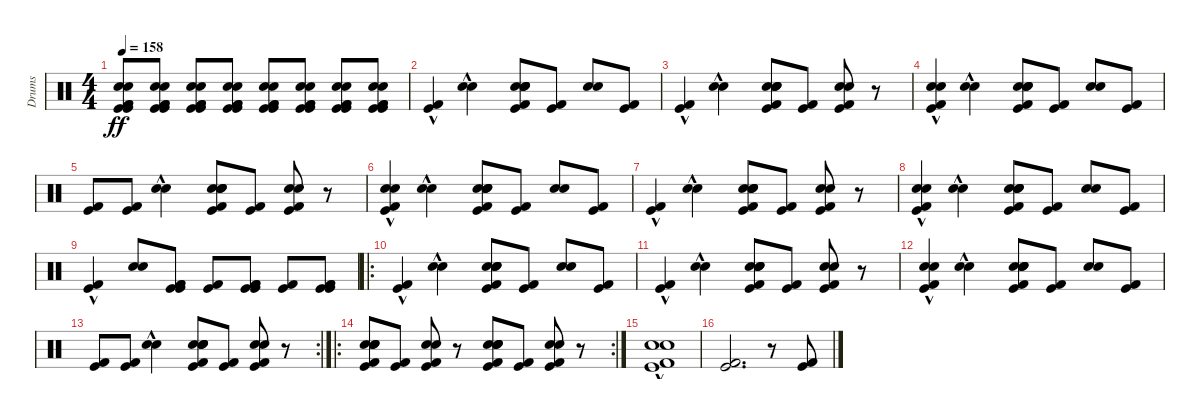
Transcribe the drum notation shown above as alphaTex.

\track ("Drums" "Drums") {instrument percussion}
\staff {score}
\articulation defaults
\ts (4 4)
\tempo 158
\clef neutral
\ks c
("Kick (hit)" "Kick (hit) 2" "Snare (hit) 2" "Electric Snare (hit)" "Kick (hit)" "Kick (hit) 2").8{dy ff} ("Kick (hit)" "Kick (hit) 2" "Snare (hit) 2" "Electric Snare (hit)" "Kick (hit)" "Kick (hit) 2").8 ("Kick (hit)" "Kick (hit) 2" "Snare (hit) 2" "Electric Snare (hit)" "Kick (hit)" "Kick (hit) 2").8 ("Kick (hit)" "Kick (hit) 2" "Snare (hit) 2" "Electric Snare (hit)" "Kick (hit)" "Kick (hit) 2").8 ("Kick (hit)" "Kick (hit) 2" "Snare (hit) 2" "Electric Snare (hit)" "Kick (hit)" "Kick (hit) 2").8 ("Kick (hit)" "Kick (hit) 2" "Snare (hit) 2" "Electric Snare (hit)" "Kick (hit)" "Kick (hit) 2").8 ("Kick (hit)" "Kick (hit) 2" "Snare (hit) 2" "Electric Snare (hit)" "Kick (hit)" "Kick (hit) 2").8 ("Kick (hit)" "Kick (hit) 2" "Snare (hit) 2" "Electric Snare (hit)" "Kick (hit)" "Kick (hit) 2").8 |
("Kick (hit)"{hac} "Kick (hit) 2"{hac}).4 ("Snare (hit) 2"{hac} "Electric Snare (hit)"{hac}).4 ("Snare (hit) 2" "Electric Snare (hit)" "Kick (hit)" "Kick (hit) 2" "Snare (hit) 2" "Electric Snare (hit)").8 ("Kick (hit)" "Kick (hit) 2").8 ("Snare (hit) 2" "Electric Snare (hit)").8 ("Kick (hit)" "Kick (hit) 2").8 |
("Kick (hit)"{hac} "Kick (hit) 2"{hac}).4 ("Snare (hit) 2"{hac} "Electric Snare (hit)"{hac}).4 ("Snare (hit) 2" "Electric Snare (hit)" "Kick (hit)" "Kick (hit) 2" "Snare (hit) 2" "Electric Snare (hit)").8 ("Kick (hit)" "Kick (hit) 2").8 ("Snare (hit) 2" "Electric Snare (hit)" "Kick (hit)" "Kick (hit) 2").8 r.8 |
("Snare (hit) 2" "Electric Snare (hit)" "Kick (hit)"{hac} "Kick (hit) 2"{hac}).4 ("Snare (hit) 2"{hac} "Electric Snare (hit)"{hac}).4 ("Snare (hit) 2" "Electric Snare (hit)" "Kick (hit)" "Kick (hit) 2" "Snare (hit) 2" "Electric Snare (hit)").8 ("Kick (hit)" "Kick (hit) 2").8 ("Snare (hit) 2" "Electric Snare (hit)").8 ("Kick (hit)" "Kick (hit) 2").8 |
("Kick (hit)" "Kick (hit) 2").8 ("Kick (hit)" "Kick (hit) 2").8 ("Snare (hit) 2"{hac} "Electric Snare (hit)"{hac}).4 ("Snare (hit) 2" "Electric Snare (hit)" "Kick (hit)" "Kick (hit) 2" "Snare (hit) 2" "Electric Snare (hit)").8 ("Kick (hit)" "Kick (hit) 2").8 ("Snare (hit) 2" "Electric Snare (hit)" "Kick (hit)" "Kick (hit) 2").8 r.8 |
("Snare (hit) 2" "Electric Snare (hit)" "Kick (hit)"{hac} "Kick (hit) 2"{hac}).4 ("Snare (hit) 2"{hac} "Electric Snare (hit)"{hac}).4 ("Snare (hit) 2" "Electric Snare (hit)" "Kick (hit)" "Kick (hit) 2" "Snare (hit) 2" "Electric Snare (hit)").8 ("Kick (hit)" "Kick (hit) 2").8 ("Snare (hit) 2" "Electric Snare (hit)").8 ("Kick (hit)" "Kick (hit) 2").8 |
("Kick (hit)"{hac} "Kick (hit) 2"{hac}).4 ("Snare (hit) 2"{hac} "Electric Snare (hit)"{hac}).4 ("Snare (hit) 2" "Electric Snare (hit)" "Kick (hit)" "Kick (hit) 2" "Snare (hit) 2" "Electric Snare (hit)").8 ("Kick (hit)" "Kick (hit) 2").8 ("Snare (hit) 2" "Electric Snare (hit)" "Kick (hit)" "Kick (hit) 2").8 r.8 |
("Snare (hit) 2" "Electric Snare (hit)" "Kick (hit)"{hac} "Kick (hit) 2"{hac}).4 ("Snare (hit) 2"{hac} "Electric Snare (hit)"{hac}).4 ("Snare (hit) 2" "Electric Snare (hit)" "Kick (hit)" "Kick (hit) 2" "Snare (hit) 2" "Electric Snare (hit)").8 ("Kick (hit)" "Kick (hit) 2").8 ("Snare (hit) 2" "Electric Snare (hit)").8 ("Kick (hit)" "Kick (hit) 2").8 |
("Kick (hit)"{hac} "Kick (hit) 2"{hac}).4 ("Snare (hit) 2" "Electric Snare (hit)").8 ("Kick (hit)" "Kick (hit) 2" "Kick (hit)" "Kick (hit) 2").8 ("Kick (hit)" "Kick (hit) 2").8 ("Kick (hit)" "Kick (hit) 2" "Kick (hit)" "Kick (hit) 2").8 ("Kick (hit)" "Kick (hit) 2").8 ("Kick (hit)" "Kick (hit) 2" "Kick (hit)" "Kick (hit) 2").8 |
\ro
("Kick (hit)"{hac} "Kick (hit) 2"{hac}).4 ("Snare (hit) 2"{hac} "Electric Snare (hit)"{hac}).4 ("Snare (hit) 2" "Electric Snare (hit)" "Kick (hit)" "Kick (hit) 2" "Snare (hit) 2" "Electric Snare (hit)").8 ("Kick (hit)" "Kick (hit) 2").8 ("Snare (hit) 2" "Electric Snare (hit)").8 ("Kick (hit)" "Kick (hit) 2").8 |
("Kick (hit)"{hac} "Kick (hit) 2"{hac}).4 ("Snare (hit) 2"{hac} "Electric Snare (hit)"{hac}).4 ("Snare (hit) 2" "Electric Snare (hit)" "Kick (hit)" "Kick (hit) 2" "Snare (hit) 2" "Electric Snare (hit)").8 ("Kick (hit)" "Kick (hit) 2").8 ("Snare (hit) 2" "Electric Snare (hit)" "Kick (hit)" "Kick (hit) 2").8 r.8 |
("Snare (hit) 2" "Electric Snare (hit)" "Kick (hit)"{hac} "Kick (hit) 2"{hac}).4 ("Snare (hit) 2"{hac} "Electric Snare (hit)"{hac}).4 ("Snare (hit) 2" "Electric Snare (hit)" "Kick (hit)" "Kick (hit) 2" "Snare (hit) 2" "Electric Snare (hit)").8 ("Kick (hit)" "Kick (hit) 2").8 ("Snare (hit) 2" "Electric Snare (hit)").8 ("Kick (hit)" "Kick (hit) 2").8 |
\rc 2
("Kick (hit)" "Kick (hit) 2").8 ("Kick (hit)" "Kick (hit) 2").8 ("Snare (hit) 2"{hac} "Electric Snare (hit)"{hac}).4 ("Snare (hit) 2" "Electric Snare (hit)" "Kick (hit)" "Kick (hit) 2" "Snare (hit) 2" "Electric Snare (hit)").8 ("Kick (hit)" "Kick (hit) 2").8 ("Snare (hit) 2" "Electric Snare (hit)" "Kick (hit)" "Kick (hit) 2").8 r.8 |
\ro
\rc 2
("Snare (hit) 2" "Electric Snare (hit)" "Kick (hit)" "Kick (hit) 2" "Snare (hit) 2" "Electric Snare (hit)").8 ("Kick (hit)" "Kick (hit) 2").8 ("Snare (hit) 2" "Electric Snare (hit)" "Kick (hit)" "Kick (hit) 2").8 r.8 ("Snare (hit) 2" "Electric Snare (hit)" "Kick (hit)" "Kick (hit) 2" "Snare (hit) 2" "Electric Snare (hit)").8 ("Kick (hit)" "Kick (hit) 2").8 ("Snare (hit) 2" "Electric Snare (hit)" "Kick (hit)" "Kick (hit) 2").8 r.8 |
("Snare (hit) 2" "Electric Snare (hit)" "Kick (hit)"{hac} "Kick (hit) 2"{hac}).1 |
("Kick (hit)" "Kick (hit) 2").2{d} r.8 ("Kick (hit)" "Kick (hit) 2").8
